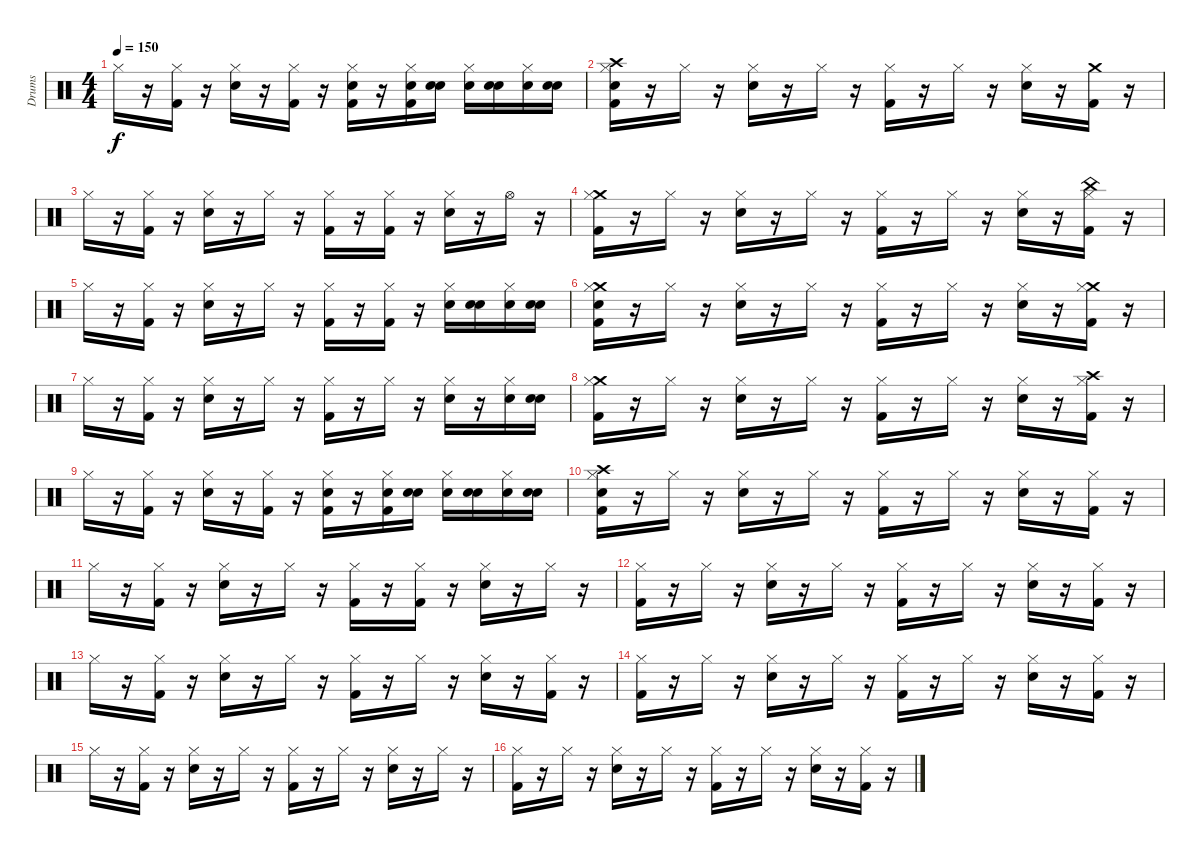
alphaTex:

\track ("Drums" "Drums") {instrument percussion}
\staff {score}
\articulation defaults
\ts (4 4)
\tempo 150
\clef neutral
\ks c "Hi-Hat (closed)".16{dy f}
r.16 ("Kick (hit) 2" "Hi-Hat (closed)").16 r.16 ("Snare (hit) 2" "Hi-Hat (closed)").16 r.16 ("Kick (hit) 2" "Hi-Hat (closed)").16 r.16 ("Electric Snare (hit)" "Kick (hit) 2" "Hi-Hat (closed)").16 r.16 ("Snare (hit) 2" "Kick (hit) 2" "Hi-Hat (closed)").16 ("Snare (hit)" "Snare (hit) 2").16 ("Snare (hit) 2" "Hi-Hat (closed)").16 ("Snare (hit)" "Snare (hit) 2").16 ("Snare (hit) 2" "Hi-Hat (closed)").16 ("Snare (hit)" "Snare (hit) 2").16 |
("Snare (hit)" "Crash high (hit)" "Kick (hit) 2" "Hi-Hat (closed)").16 r.16 "Hi-Hat (closed)".16 r.16 ("Snare (hit) 2" "Hi-Hat (closed)").16 r.16 "Hi-Hat (closed)".16 r.16 ("Kick (hit) 2" "Hi-Hat (closed)").16 r.16 "Hi-Hat (closed)".16 r.16 ("Snare (hit) 2" "Hi-Hat (closed)").16 r.16 ("Kick (hit) 2" "Crash medium (hit)").16 r.16 |
"Hi-Hat (closed)".16 r.16 ("Kick (hit) 2" "Hi-Hat (closed)").16 r.16 ("Snare (hit) 2" "Hi-Hat (closed)").16 r.16 "Hi-Hat (closed)".16 r.16 ("Kick (hit) 2" "Hi-Hat (closed)").16 r.16 ("Kick (hit) 2" "Hi-Hat (closed)").16 r.16 ("Snare (hit) 2" "Hi-Hat (closed)").16 r.16 "Hi-Hat (open)".16 r.16 |
("Crash medium (hit)" "Kick (hit) 2" "Hi-Hat (closed)").16 r.16 "Hi-Hat (closed)".16 r.16 ("Snare (hit) 2" "Hi-Hat (closed)").16 r.16 "Hi-Hat (closed)".16 r.16 ("Kick (hit) 2" "Hi-Hat (closed)").16 r.16 "Hi-Hat (closed)".16 r.16 ("Snare (hit) 2" "Hi-Hat (closed)").16 r.16 ("China (hit)" "Kick (hit) 2" "Hi-Hat (closed)").16 r.16 |
"Hi-Hat (closed)".16 r.16 ("Kick (hit) 2" "Hi-Hat (closed)").16 r.16 ("Snare (hit) 2" "Hi-Hat (closed)").16 r.16 "Hi-Hat (closed)".16 r.16 ("Kick (hit) 2" "Hi-Hat (closed)").16 r.16 ("Kick (hit) 2" "Hi-Hat (closed)").16 r.16 ("Snare (hit) 2" "Hi-Hat (closed)").16 ("Snare (hit)" "Snare (hit) 2").16 ("Snare (hit) 2" "Hi-Hat (closed)").16 ("Snare (hit)" "Snare (hit) 2").16 |
("Snare (hit)" "Crash medium (hit)" "Kick (hit) 2" "Hi-Hat (closed)").16 r.16 "Hi-Hat (closed)".16 r.16 ("Snare (hit) 2" "Hi-Hat (closed)").16 r.16 "Hi-Hat (closed)".16 r.16 ("Kick (hit) 2" "Hi-Hat (closed)").16 r.16 "Hi-Hat (closed)".16 r.16 ("Snare (hit) 2" "Hi-Hat (closed)").16 r.16 ("Crash medium (hit)" "Kick (hit) 2" "Hi-Hat (closed)").16 r.16 |
"Hi-Hat (closed)".16 r.16 ("Kick (hit) 2" "Hi-Hat (closed)").16 r.16 ("Snare (hit) 2" "Hi-Hat (closed)").16 r.16 "Hi-Hat (closed)".16 r.16 ("Kick (hit) 2" "Hi-Hat (closed)").16 r.16 "Hi-Hat (closed)".16 r.16 ("Snare (hit) 2" "Hi-Hat (closed)").16 r.16 ("Snare (hit) 2" "Hi-Hat (closed)").16 ("Snare (hit)" "Snare (hit) 2").16 |
("Crash medium (hit)" "Kick (hit) 2" "Hi-Hat (closed)").16 r.16 "Hi-Hat (closed)".16 r.16 ("Snare (hit) 2" "Hi-Hat (closed)").16 r.16 "Hi-Hat (closed)".16 r.16 ("Kick (hit) 2" "Hi-Hat (closed)").16 r.16 "Hi-Hat (closed)".16 r.16 ("Snare (hit) 2" "Hi-Hat (closed)").16 r.16 ("Crash high (hit)" "Kick (hit) 2" "Hi-Hat (closed)").16 r.16 |
"Hi-Hat (closed)".16 r.16 ("Kick (hit) 2" "Hi-Hat (closed)").16 r.16 ("Snare (hit) 2" "Hi-Hat (closed)").16 r.16 ("Kick (hit) 2" "Hi-Hat (closed)").16 r.16 ("Electric Snare (hit)" "Kick (hit) 2" "Hi-Hat (closed)").16 r.16 ("Snare (hit) 2" "Kick (hit) 2" "Hi-Hat (closed)").16 ("Snare (hit)" "Snare (hit) 2").16 ("Snare (hit) 2" "Hi-Hat (closed)").16 ("Snare (hit)" "Snare (hit) 2").16 ("Snare (hit) 2" "Hi-Hat (closed)").16 ("Snare (hit)" "Snare (hit) 2").16 |
("Snare (hit)" "Crash high (hit)" "Kick (hit) 2" "Hi-Hat (closed)").16 r.16 "Hi-Hat (closed)".16 r.16 ("Snare (hit) 2" "Hi-Hat (closed)").16 r.16 "Hi-Hat (closed)".16 r.16 ("Kick (hit) 2" "Hi-Hat (closed)").16 r.16 "Hi-Hat (closed)".16 r.16 ("Snare (hit) 2" "Hi-Hat (closed)").16 r.16 ("Kick (hit) 2" "Hi-Hat (closed)").16 r.16 |
"Hi-Hat (closed)".16 r.16 ("Kick (hit) 2" "Hi-Hat (closed)").16 r.16 ("Snare (hit) 2" "Hi-Hat (closed)").16 r.16 "Hi-Hat (closed)".16 r.16 ("Kick (hit) 2" "Hi-Hat (closed)").16 r.16 ("Kick (hit) 2" "Hi-Hat (closed)").16 r.16 ("Snare (hit) 2" "Hi-Hat (closed)").16 r.16 "Hi-Hat (closed)".16 r.16 |
("Kick (hit) 2" "Hi-Hat (closed)").16 r.16 "Hi-Hat (closed)".16 r.16 ("Snare (hit) 2" "Hi-Hat (closed)").16 r.16 "Hi-Hat (closed)".16 r.16 ("Kick (hit) 2" "Hi-Hat (closed)").16 r.16 "Hi-Hat (closed)".16 r.16 ("Snare (hit) 2" "Hi-Hat (closed)").16 r.16 ("Kick (hit) 2" "Hi-Hat (closed)").16 r.16 |
"Hi-Hat (closed)".16 r.16 ("Kick (hit) 2" "Hi-Hat (closed)").16 r.16 ("Snare (hit) 2" "Hi-Hat (closed)").16 r.16 "Hi-Hat (closed)".16 r.16 ("Kick (hit) 2" "Hi-Hat (closed)").16 r.16 "Hi-Hat (closed)".16 r.16 ("Snare (hit) 2" "Hi-Hat (closed)").16 r.16 ("Kick (hit) 2" "Hi-Hat (closed)").16 r.16 |
("Kick (hit) 2" "Hi-Hat (closed)").16 r.16 "Hi-Hat (closed)".16 r.16 ("Snare (hit) 2" "Hi-Hat (closed)").16 r.16 "Hi-Hat (closed)".16 r.16 ("Kick (hit) 2" "Hi-Hat (closed)").16 r.16 "Hi-Hat (closed)".16 r.16 ("Snare (hit) 2" "Hi-Hat (closed)").16 r.16 ("Kick (hit) 2" "Hi-Hat (closed)").16 r.16 |
"Hi-Hat (closed)".16 r.16 ("Kick (hit) 2" "Hi-Hat (closed)").16 r.16 ("Snare (hit) 2" "Hi-Hat (closed)").16 r.16 "Hi-Hat (closed)".16 r.16 ("Kick (hit) 2" "Hi-Hat (closed)").16 r.16 "Hi-Hat (closed)".16 r.16 ("Snare (hit) 2" "Hi-Hat (closed)").16 r.16 "Hi-Hat (closed)".16 r.16 |
("Kick (hit) 2" "Hi-Hat (closed)").16 r.16 "Hi-Hat (closed)".16 r.16 ("Snare (hit) 2" "Hi-Hat (closed)").16 r.16 "Hi-Hat (closed)".16 r.16 ("Kick (hit) 2" "Hi-Hat (closed)").16 r.16 "Hi-Hat (closed)".16 r.16 ("Snare (hit) 2" "Hi-Hat (closed)").16 r.16 ("Kick (hit) 2" "Hi-Hat (closed)").16 r.16
